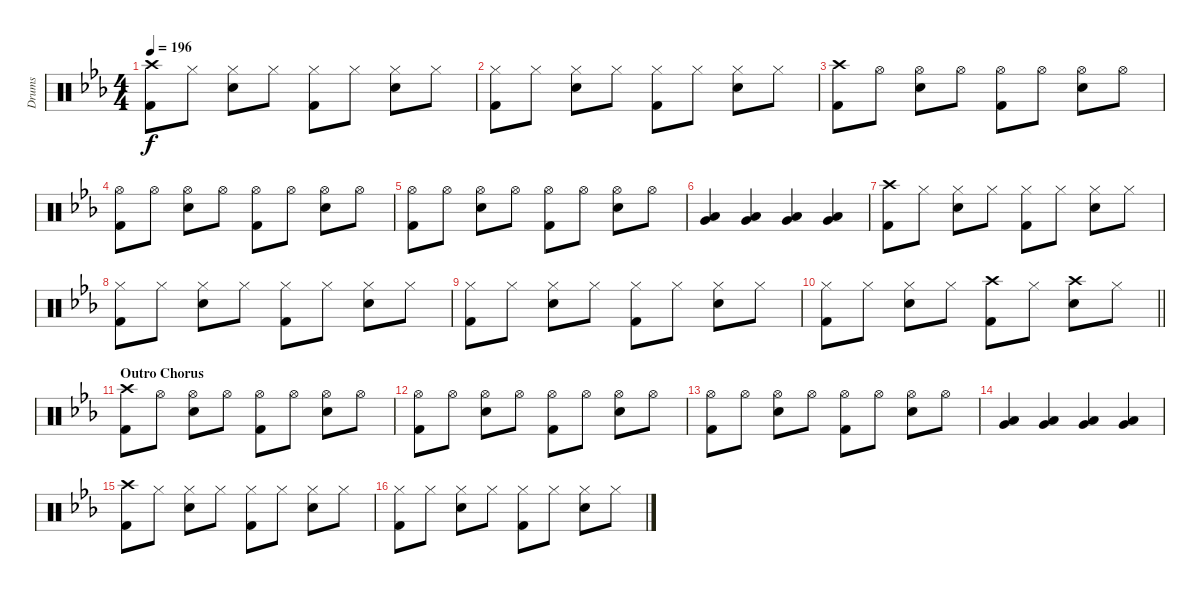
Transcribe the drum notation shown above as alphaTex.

\track ("Drums" "Drums") {instrument percussion}
\staff {score}
\articulation defaults
\ts (4 4)
\tempo 196
\clef neutral
\ks eb
("Crash high (hit)" "Kick (hit) 2").8{dy f} "Hi-Hat (closed)".8 ("Hi-Hat (closed)" "Snare (hit) 2").8 "Hi-Hat (closed)".8 ("Hi-Hat (closed)" "Kick (hit) 2").8 "Hi-Hat (closed)".8 ("Hi-Hat (closed)" "Snare (hit) 2").8 "Hi-Hat (closed)".8 |
("Hi-Hat (closed)" "Kick (hit) 2").8 "Hi-Hat (closed)".8 ("Hi-Hat (closed)" "Snare (hit) 2").8 "Hi-Hat (closed)".8 ("Hi-Hat (closed)" "Kick (hit) 2").8 "Hi-Hat (closed)".8 ("Hi-Hat (closed)" "Snare (hit) 2").8 "Hi-Hat (closed)".8 |
("Crash high (hit)" "Kick (hit) 2").8 "Hi-Hat (open)".8 ("Hi-Hat (open)" "Snare (hit) 2").8 "Hi-Hat (open)".8 ("Hi-Hat (open)" "Kick (hit) 2").8 "Hi-Hat (open)".8 ("Hi-Hat (open)" "Snare (hit) 2").8 "Hi-Hat (open)".8 |
("Hi-Hat (open)" "Kick (hit) 2").8 "Hi-Hat (open)".8 ("Hi-Hat (open)" "Snare (hit) 2").8 "Hi-Hat (open)".8 ("Hi-Hat (open)" "Kick (hit) 2").8 "Hi-Hat (open)".8 ("Hi-Hat (open)" "Snare (hit) 2").8 "Hi-Hat (open)".8 |
("Hi-Hat (open)" "Kick (hit) 2").8 "Hi-Hat (open)".8 ("Hi-Hat (open)" "Snare (hit) 2").8 "Hi-Hat (open)".8 ("Hi-Hat (open)" "Kick (hit) 2").8 "Hi-Hat (open)".8 ("Hi-Hat (open)" "Snare (hit) 2").8 "Hi-Hat (open)".8 |
("Very Low Tom (hit)" "Low Floor Tom (hit)").4 ("Very Low Tom (hit)" "Low Floor Tom (hit)").4 ("Very Low Tom (hit)" "Low Floor Tom (hit)").4 ("Very Low Tom (hit)" "Low Floor Tom (hit)").4 |
("Crash high (hit)" "Kick (hit) 2").8 "Hi-Hat (closed)".8 ("Hi-Hat (closed)" "Snare (hit) 2").8 "Hi-Hat (closed)".8 ("Hi-Hat (closed)" "Kick (hit) 2").8 "Hi-Hat (closed)".8 ("Hi-Hat (closed)" "Snare (hit) 2").8 "Hi-Hat (closed)".8 |
("Hi-Hat (closed)" "Kick (hit) 2").8 "Hi-Hat (closed)".8 ("Hi-Hat (closed)" "Snare (hit) 2").8 "Hi-Hat (closed)".8 ("Hi-Hat (closed)" "Kick (hit) 2").8 "Hi-Hat (closed)".8 ("Hi-Hat (closed)" "Snare (hit) 2").8 "Hi-Hat (closed)".8 |
("Hi-Hat (closed)" "Kick (hit) 2").8 "Hi-Hat (closed)".8 ("Hi-Hat (closed)" "Snare (hit) 2").8 "Hi-Hat (closed)".8 ("Hi-Hat (closed)" "Kick (hit) 2").8 "Hi-Hat (closed)".8 ("Hi-Hat (closed)" "Snare (hit) 2").8 "Hi-Hat (closed)".8 |
\barLineRight lightlight
("Hi-Hat (closed)" "Kick (hit) 2").8 "Hi-Hat (closed)".8 ("Hi-Hat (closed)" "Snare (hit) 2").8 "Hi-Hat (closed)".8 ("Crash high (hit)" "Kick (hit) 2").8 "Hi-Hat (closed)".8 ("Crash high (hit)" "Snare (hit) 2").8 "Hi-Hat (closed)".8 |
\section ("" "Outro Chorus")
("Crash high (hit)" "Kick (hit) 2").8 "Hi-Hat (open)".8 ("Hi-Hat (open)" "Snare (hit) 2").8 "Hi-Hat (open)".8 ("Hi-Hat (open)" "Kick (hit) 2").8 "Hi-Hat (open)".8 ("Hi-Hat (open)" "Snare (hit) 2").8 "Hi-Hat (open)".8 |
("Hi-Hat (open)" "Kick (hit) 2").8 "Hi-Hat (open)".8 ("Hi-Hat (open)" "Snare (hit) 2").8 "Hi-Hat (open)".8 ("Hi-Hat (open)" "Kick (hit) 2").8 "Hi-Hat (open)".8 ("Hi-Hat (open)" "Snare (hit) 2").8 "Hi-Hat (open)".8 |
("Hi-Hat (open)" "Kick (hit) 2").8 "Hi-Hat (open)".8 ("Hi-Hat (open)" "Snare (hit) 2").8 "Hi-Hat (open)".8 ("Hi-Hat (open)" "Kick (hit) 2").8 "Hi-Hat (open)".8 ("Hi-Hat (open)" "Snare (hit) 2").8 "Hi-Hat (open)".8 |
("Very Low Tom (hit)" "Low Floor Tom (hit)").4 ("Very Low Tom (hit)" "Low Floor Tom (hit)").4 ("Very Low Tom (hit)" "Low Floor Tom (hit)").4 ("Very Low Tom (hit)" "Low Floor Tom (hit)").4 |
("Crash high (hit)" "Kick (hit) 2").8 "Hi-Hat (closed)".8 ("Hi-Hat (closed)" "Snare (hit) 2").8 "Hi-Hat (closed)".8 ("Hi-Hat (closed)" "Kick (hit) 2").8 "Hi-Hat (closed)".8 ("Hi-Hat (closed)" "Snare (hit) 2").8 "Hi-Hat (closed)".8 |
("Hi-Hat (closed)" "Kick (hit) 2").8 "Hi-Hat (closed)".8 ("Hi-Hat (closed)" "Snare (hit) 2").8 "Hi-Hat (closed)".8 ("Hi-Hat (closed)" "Kick (hit) 2").8 "Hi-Hat (closed)".8 ("Hi-Hat (closed)" "Snare (hit) 2").8 "Hi-Hat (closed)".8
